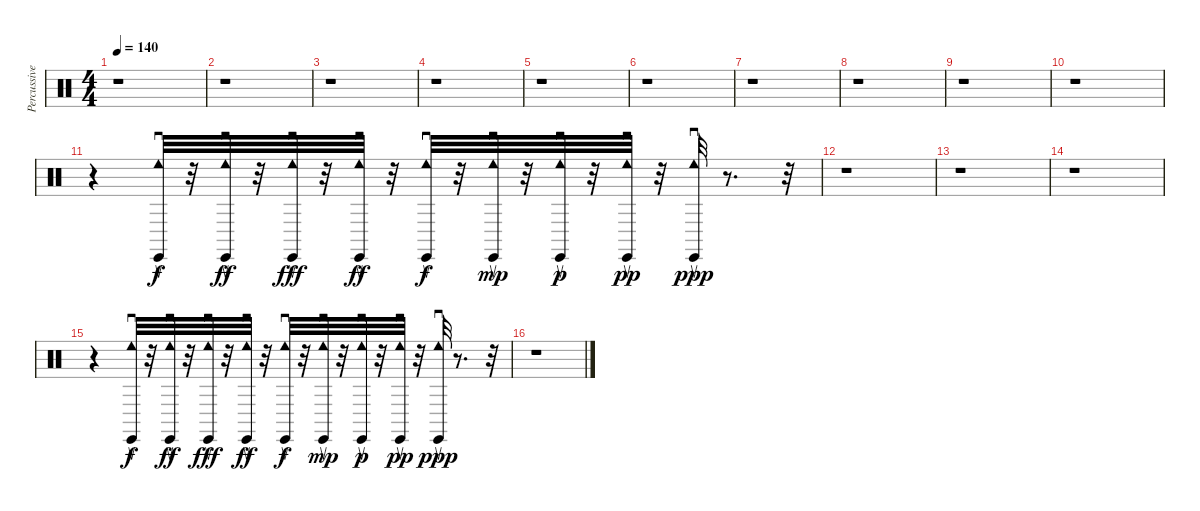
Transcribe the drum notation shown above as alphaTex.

\track ("Percussive Organ" "Percussive") {instrument percussion}
\staff {score}
\articulation defaults
\ts (4 4)
\tempo 140
\clef neutral
\ks c
r.1{dy ppp} |
r.1 |
r.1 |
r.1 |
r.1 |
r.1 |
r.1 |
r.1 |
r.1 |
r.1 |
r.4 ("Cabasa (return)" "Tambourine (roll)").32{dy f} r.32 ("Tambourine (roll)" "Cabasa (return)").32{dy ff} r.32 ("Tambourine (roll)" "Cabasa (return)").32{dy fff} r.32 ("Tambourine (roll)" "Cabasa (return)").32{dy ff} r.32 ("Tambourine (roll)" "Cabasa (return)").32{dy f} r.32 ("Tambourine (roll)" "Cabasa (return)").32{dy mp} r.32 ("Tambourine (roll)" "Cabasa (return)").32{dy p} r.32 ("Tambourine (roll)" "Cabasa (return)").32{dy pp} r.32 ("Cabasa (return)" "Tambourine (roll)").32{dy ppp} r.8{d} r.32 |
r.1 |
r.1 |
r.1 |
r.4 ("Cabasa (return)" "Tambourine (roll)").32{dy f} r.32 ("Tambourine (roll)" "Cabasa (return)").32{dy ff} r.32 ("Tambourine (roll)" "Cabasa (return)").32{dy fff} r.32 ("Tambourine (roll)" "Cabasa (return)").32{dy ff} r.32 ("Tambourine (roll)" "Cabasa (return)").32{dy f} r.32 ("Tambourine (roll)" "Cabasa (return)").32{dy mp} r.32 ("Tambourine (roll)" "Cabasa (return)").32{dy p} r.32 ("Tambourine (roll)" "Cabasa (return)").32{dy pp} r.32 ("Cabasa (return)" "Tambourine (roll)").32{dy ppp} r.8{d} r.32 |
r.1
